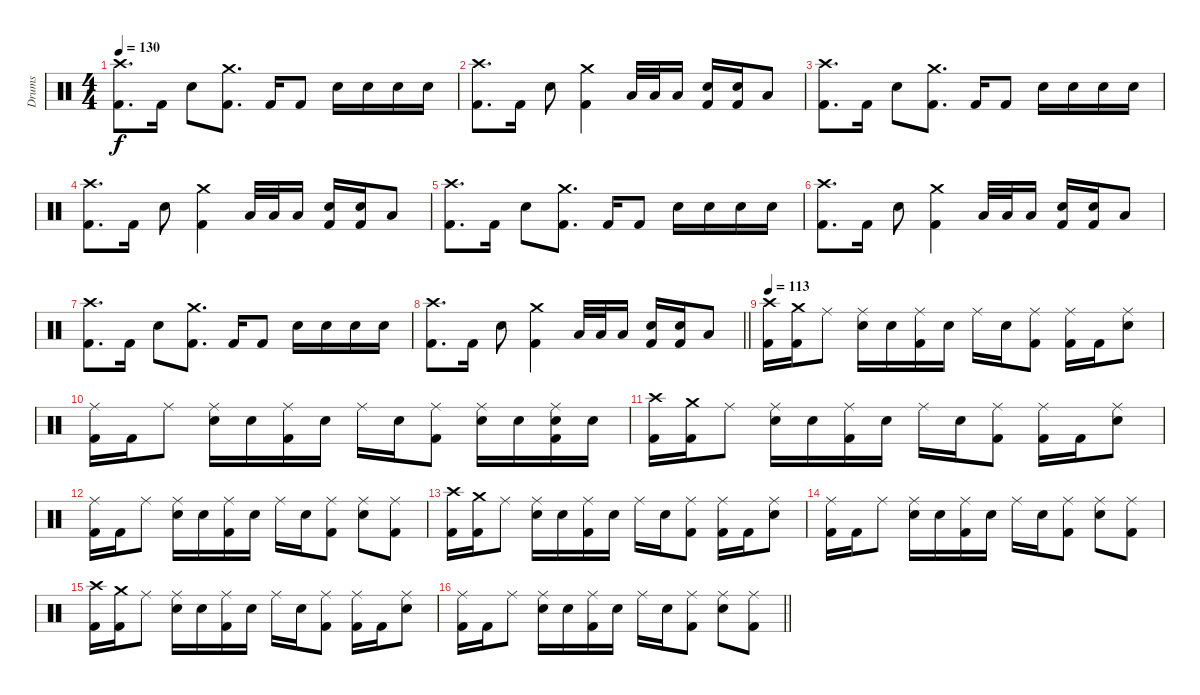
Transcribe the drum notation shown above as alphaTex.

\track ("Drums" "Drums") {instrument percussion}
\staff {score}
\articulation defaults
\ts (4 4)
\tempo 130
\clef neutral
\ks c
("Crash high (hit)" "Kick (hit) 2").8{d dy f} "Kick (hit) 2".16 "Electric Snare (hit)".8 ("Crash medium (hit)" "Kick (hit) 2").8{d} "Kick (hit) 2".16 "Kick (hit) 2".8 "Electric Snare (hit)".16 "Electric Snare (hit)".16 "Electric Snare (hit)".16 "Electric Snare (hit)".16 |
("Crash high (hit)" "Kick (hit) 2").8{d} "Kick (hit) 2".16 "Electric Snare (hit)".8 ("Crash medium (hit)" "Kick (hit) 2").4 "Low Tom (hit)".32 "Low Tom (hit)".32 "Low Tom (hit)".16 ("Electric Snare (hit)" "Kick (hit) 2").16 ("Electric Snare (hit)" "Kick (hit) 2").16 "Low Tom (hit)".8 |
("Crash high (hit)" "Kick (hit) 2").8{d} "Kick (hit) 2".16 "Electric Snare (hit)".8 ("Crash medium (hit)" "Kick (hit) 2").8{d} "Kick (hit) 2".16 "Kick (hit) 2".8 "Electric Snare (hit)".16 "Electric Snare (hit)".16 "Electric Snare (hit)".16 "Electric Snare (hit)".16 |
("Crash high (hit)" "Kick (hit) 2").8{d} "Kick (hit) 2".16 "Electric Snare (hit)".8 ("Crash medium (hit)" "Kick (hit) 2").4 "Low Tom (hit)".32 "Low Tom (hit)".32 "Low Tom (hit)".16 ("Electric Snare (hit)" "Kick (hit) 2").16 ("Electric Snare (hit)" "Kick (hit) 2").16 "Low Tom (hit)".8 |
("Crash high (hit)" "Kick (hit) 2").8{d} "Kick (hit) 2".16 "Electric Snare (hit)".8 ("Crash medium (hit)" "Kick (hit) 2").8{d} "Kick (hit) 2".16 "Kick (hit) 2".8 "Electric Snare (hit)".16 "Electric Snare (hit)".16 "Electric Snare (hit)".16 "Electric Snare (hit)".16 |
("Crash high (hit)" "Kick (hit) 2").8{d} "Kick (hit) 2".16 "Electric Snare (hit)".8 ("Crash medium (hit)" "Kick (hit) 2").4 "Low Tom (hit)".32 "Low Tom (hit)".32 "Low Tom (hit)".16 ("Electric Snare (hit)" "Kick (hit) 2").16 ("Electric Snare (hit)" "Kick (hit) 2").16 "Low Tom (hit)".8 |
("Crash high (hit)" "Kick (hit) 2").8{d} "Kick (hit) 2".16 "Electric Snare (hit)".8 ("Crash medium (hit)" "Kick (hit) 2").8{d} "Kick (hit) 2".16 "Kick (hit) 2".8 "Electric Snare (hit)".16 "Electric Snare (hit)".16 "Electric Snare (hit)".16 "Electric Snare (hit)".16 |
\barLineRight lightlight
("Crash high (hit)" "Kick (hit) 2").8{d} "Kick (hit) 2".16 "Electric Snare (hit)".8 ("Crash medium (hit)" "Kick (hit) 2").4 "Low Tom (hit)".32 "Low Tom (hit)".32 "Low Tom (hit)".16 ("Electric Snare (hit)" "Kick (hit) 2").16 ("Electric Snare (hit)" "Kick (hit) 2").16 "Low Tom (hit)".8 |
\tempo 113
("Crash high (hit)" "Kick (hit) 2").16 ("Crash medium (hit)" "Kick (hit) 2").16 "Ride (middle)".8 ("Ride (middle)" "Electric Snare (hit)").16 "Electric Snare (hit)".16 ("Ride (middle)" "Kick (hit) 2").16 "Electric Snare (hit)".16 "Ride (middle)".16 "Electric Snare (hit)".16 ("Ride (middle)" "Kick (hit) 2").8 ("Ride (middle)" "Kick (hit) 2").16 "Kick (hit) 2".16 ("Ride (middle)" "Electric Snare (hit)").8 |
("Ride (middle)" "Kick (hit) 2").16 "Kick (hit) 2".16 "Ride (middle)".8 ("Ride (middle)" "Electric Snare (hit)").16 "Electric Snare (hit)".16 ("Ride (middle)" "Kick (hit) 2").16 "Electric Snare (hit)".16 "Ride (middle)".16 "Electric Snare (hit)".16 ("Ride (middle)" "Kick (hit) 2").8 ("Ride (middle)" "Electric Snare (hit)").16 "Electric Snare (hit)".16 ("Ride (middle)" "Electric Snare (hit)" "Kick (hit) 2").16 "Electric Snare (hit)".16 |
("Crash high (hit)" "Kick (hit) 2").16 ("Crash medium (hit)" "Kick (hit) 2").16 "Ride (middle)".8 ("Ride (middle)" "Electric Snare (hit)").16 "Electric Snare (hit)".16 ("Ride (middle)" "Kick (hit) 2").16 "Electric Snare (hit)".16 "Ride (middle)".16 "Electric Snare (hit)".16 ("Ride (middle)" "Kick (hit) 2").8 ("Ride (middle)" "Kick (hit) 2").16 "Kick (hit) 2".16 ("Ride (middle)" "Electric Snare (hit)").8 |
("Ride (middle)" "Kick (hit) 2").16 "Kick (hit) 2".16 "Ride (middle)".8 ("Ride (middle)" "Electric Snare (hit)").16 "Electric Snare (hit)".16 ("Ride (middle)" "Kick (hit) 2").16 "Electric Snare (hit)".16 "Ride (middle)".16 "Electric Snare (hit)".16 ("Ride (middle)" "Kick (hit) 2").8 ("Ride (middle)" "Electric Snare (hit)").8 ("Ride (middle)" "Kick (hit) 2").8 |
("Crash high (hit)" "Kick (hit) 2").16 ("Crash medium (hit)" "Kick (hit) 2").16 "Ride (middle)".8 ("Ride (middle)" "Electric Snare (hit)").16 "Electric Snare (hit)".16 ("Ride (middle)" "Kick (hit) 2").16 "Electric Snare (hit)".16 "Ride (middle)".16 "Electric Snare (hit)".16 ("Ride (middle)" "Kick (hit) 2").8 ("Ride (middle)" "Kick (hit) 2").16 "Kick (hit) 2".16 ("Ride (middle)" "Electric Snare (hit)").8 |
("Ride (middle)" "Kick (hit) 2").16 "Kick (hit) 2".16 "Ride (middle)".8 ("Ride (middle)" "Electric Snare (hit)").16 "Electric Snare (hit)".16 ("Ride (middle)" "Kick (hit) 2").16 "Electric Snare (hit)".16 "Ride (middle)".16 "Electric Snare (hit)".16 ("Ride (middle)" "Kick (hit) 2").8 ("Ride (middle)" "Electric Snare (hit)").8 ("Ride (middle)" "Kick (hit) 2").8 |
("Crash high (hit)" "Kick (hit) 2").16 ("Crash medium (hit)" "Kick (hit) 2").16 "Ride (middle)".8 ("Ride (middle)" "Electric Snare (hit)").16 "Electric Snare (hit)".16 ("Ride (middle)" "Kick (hit) 2").16 "Electric Snare (hit)".16 "Ride (middle)".16 "Electric Snare (hit)".16 ("Ride (middle)" "Kick (hit) 2").8 ("Ride (middle)" "Kick (hit) 2").16 "Kick (hit) 2".16 ("Ride (middle)" "Electric Snare (hit)").8 |
\barLineRight lightlight
("Ride (middle)" "Kick (hit) 2").16 "Kick (hit) 2".16 "Ride (middle)".8 ("Ride (middle)" "Electric Snare (hit)").16 "Electric Snare (hit)".16 ("Ride (middle)" "Kick (hit) 2").16 "Electric Snare (hit)".16 "Ride (middle)".16 "Electric Snare (hit)".16 ("Ride (middle)" "Kick (hit) 2").8 ("Ride (middle)" "Electric Snare (hit)").8 ("Ride (middle)" "Kick (hit) 2").8
